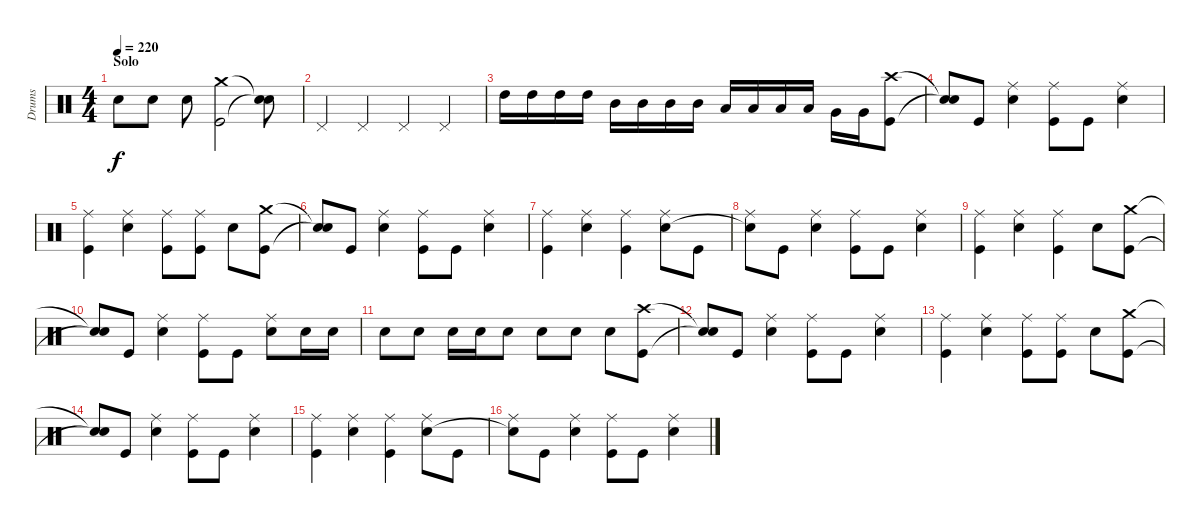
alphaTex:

\track ("Drums" "Drums") {instrument percussion}
\staff {score}
\articulation defaults
\ts (4 4)
\section ("" "Solo")
\tempo 220
\clef neutral
\ks c "Snare (hit) 2".8{dy f} "Snare (hit) 2".8 "Snare (hit) 2".8
("Crash medium (hit)" "Kick (hit)").2 ("Snare (hit)"{t} "Snare (hit)"{t}).8 |
"Pedal Hi-Hat (hit)".4 "Pedal Hi-Hat (hit)".4 "Pedal Hi-Hat (hit)".4 "Pedal Hi-Hat (hit)".4 |
"High Tom (hit)".16 "High Tom (hit)".16 "High Tom (hit)".16 "High Tom (hit)".16 "Mid Tom (hit)".16 "Mid Tom (hit)".16 "Mid Tom (hit)".16 "Mid Tom (hit)".16 "Low Tom (hit)".16 "Low Tom (hit)".16 "Low Tom (hit)".16 "Low Tom (hit)".16 "Very Low Tom (hit)".16 "Very Low Tom (hit)".16 ("Crash high (hit)" "Kick (hit)").8 |
("Snare (hit)"{t} "Snare (hit)"{t}).8 "Kick (hit)".8 ("Ride (middle)" "Snare (hit) 2").4 ("Ride (middle)" "Kick (hit)").8 "Kick (hit)".8 ("Ride (middle)" "Snare (hit) 2").4 |
("Ride (middle)" "Kick (hit)").4 ("Ride (middle)" "Snare (hit) 2").4 ("Ride (middle)" "Kick (hit)").8 ("Ride (middle)" "Kick (hit)").8 "Snare (hit) 2".8 ("Crash medium (hit)" "Kick (hit)").8 |
("Snare (hit)"{t} "Snare (hit)"{t}).8 "Kick (hit)".8 ("Ride (middle)" "Snare (hit) 2").4 ("Ride (middle)" "Kick (hit)").8 "Kick (hit)".8 ("Ride (middle)" "Snare (hit) 2").4 |
("Ride (middle)" "Kick (hit)").4 ("Ride (middle)" "Snare (hit) 2").4 ("Ride (middle)" "Kick (hit)").4 ("Ride (middle)" "Snare (hit) 2").8 "Kick (hit)".8 |
("Ride (middle)" "Snare (hit)"{t}).8 "Kick (hit)".8 ("Ride (middle)" "Snare (hit) 2").4 ("Ride (middle)" "Kick (hit)").8 "Kick (hit)".8 ("Ride (middle)" "Snare (hit) 2").4 |
("Ride (middle)" "Kick (hit)").4 ("Ride (middle)" "Snare (hit) 2").4 ("Ride (middle)" "Kick (hit)").4 "Snare (hit) 2".8 ("Crash medium (hit)" "Kick (hit)").8 |
("Snare (hit)"{t} "Snare (hit)"{t}).8 "Kick (hit)".8 ("Ride (middle)" "Snare (hit) 2").4 ("Ride (middle)" "Kick (hit)").8 "Kick (hit)".8 ("Ride (middle)" "Snare (hit) 2").8 "Snare (hit) 2".16 "Snare (hit) 2".16 |
"Snare (hit) 2".8 "Snare (hit) 2".8 "Snare (hit) 2".16 "Snare (hit) 2".16 "Snare (hit) 2".8 "Snare (hit) 2".8 "Snare (hit) 2".8 "Snare (hit) 2".8 ("Crash high (hit)" "Kick (hit)").8 |
("Snare (hit)"{t} "Snare (hit)"{t}).8 "Kick (hit)".8 ("Ride (middle)" "Snare (hit) 2").4 ("Ride (middle)" "Kick (hit)").8 "Kick (hit)".8 ("Ride (middle)" "Snare (hit) 2").4 |
("Ride (middle)" "Kick (hit)").4 ("Ride (middle)" "Snare (hit) 2").4 ("Ride (middle)" "Kick (hit)").8 ("Ride (middle)" "Kick (hit)").8 "Snare (hit) 2".8 ("Crash medium (hit)" "Kick (hit)").8 |
("Snare (hit)"{t} "Snare (hit)"{t}).8 "Kick (hit)".8 ("Ride (middle)" "Snare (hit) 2").4 ("Ride (middle)" "Kick (hit)").8 "Kick (hit)".8 ("Ride (middle)" "Snare (hit) 2").4 |
("Ride (middle)" "Kick (hit)").4 ("Ride (middle)" "Snare (hit) 2").4 ("Ride (middle)" "Kick (hit)").4 ("Ride (middle)" "Snare (hit) 2").8 "Kick (hit)".8 |
("Ride (middle)" "Snare (hit)"{t}).8 "Kick (hit)".8 ("Ride (middle)" "Snare (hit) 2").4 ("Ride (middle)" "Kick (hit)").8 "Kick (hit)".8 ("Ride (middle)" "Snare (hit) 2").4
